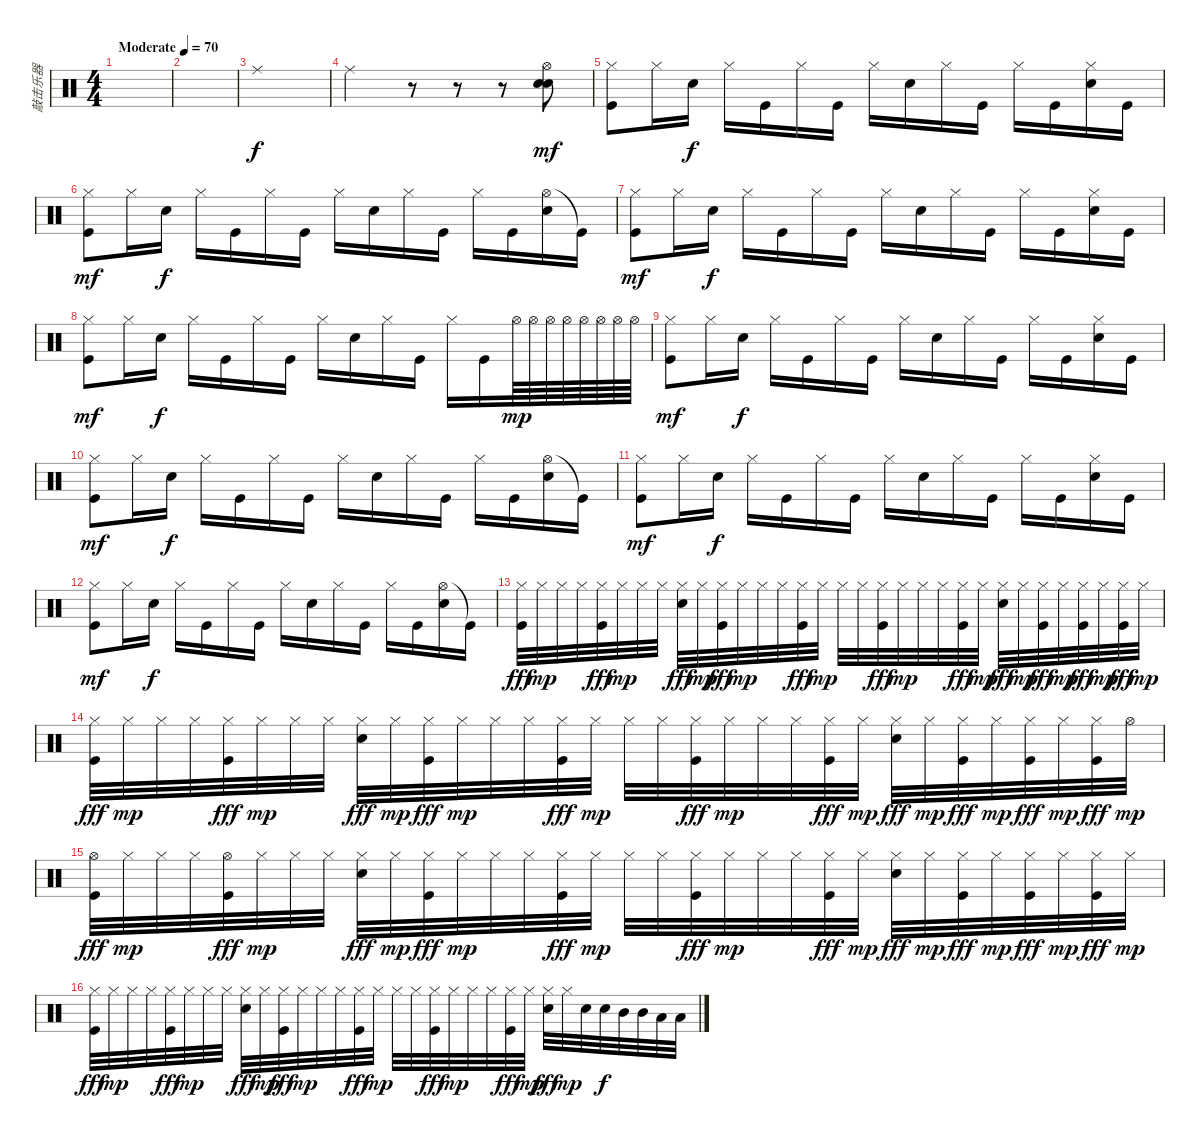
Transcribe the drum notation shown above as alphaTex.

\track ("敲击乐器" "敲击乐器") {instrument percussion}
\staff {score}
\articulation defaults
\ts (4 4)
\tempo (70 "Moderate")
\clef neutral
\ks c
|
|
"Ride (middle)".1 |
"Ride (middle)".2 r.8 r.8 r.8 ("Snare (hit) 2" "Snare (hit) 2" "Hi-Hat (open)").8{dy mf} |
("Hi-Hat (closed)" "Kick (hit)").8 "Hi-Hat (closed)".16 "Snare (hit) 2".16{dy f} "Hi-Hat (closed)".16 "Kick (hit)".16 "Hi-Hat (closed)".16 "Kick (hit)".16 "Hi-Hat (closed)".16 "Snare (hit) 2".16 "Hi-Hat (closed)".16 "Kick (hit)".16 "Hi-Hat (closed)".16 "Kick (hit)".16 ("Hi-Hat (closed)" "Snare (hit) 2").16 "Kick (hit)".16 |
("Hi-Hat (closed)" "Kick (hit)").8{dy mf} "Hi-Hat (closed)".16 "Snare (hit) 2".16{dy f} "Hi-Hat (closed)".16 "Kick (hit)".16 "Hi-Hat (closed)".16 "Kick (hit)".16 "Hi-Hat (closed)".16 "Snare (hit) 2".16 "Hi-Hat (closed)".16 "Kick (hit)".16 "Hi-Hat (closed)".16 "Kick (hit)".16 ("Hi-Hat (open)" "Snare (hit) 2").16 "Kick (hit)"{t}.16 |
("Hi-Hat (closed)" "Kick (hit)").8{dy mf} "Hi-Hat (closed)".16 "Snare (hit) 2".16{dy f} "Hi-Hat (closed)".16 "Kick (hit)".16 "Hi-Hat (closed)".16 "Kick (hit)".16 "Hi-Hat (closed)".16 "Snare (hit) 2".16 "Hi-Hat (closed)".16 "Kick (hit)".16 "Hi-Hat (closed)".16 "Kick (hit)".16 ("Hi-Hat (closed)" "Snare (hit) 2").16 "Kick (hit)".16 |
("Hi-Hat (closed)" "Kick (hit)").8{dy mf} "Hi-Hat (closed)".16 "Snare (hit) 2".16{dy f} "Hi-Hat (closed)".16 "Kick (hit)".16 "Hi-Hat (closed)".16 "Kick (hit)".16 "Hi-Hat (closed)".16 "Snare (hit) 2".16 "Hi-Hat (closed)".16 "Kick (hit)".16 "Hi-Hat (closed)".16 "Kick (hit)".16 "Hi-Hat (open)".64{dy mp} "Hi-Hat (open)".64 "Hi-Hat (open)".64 "Hi-Hat (open)".64 "Hi-Hat (open)".64 "Hi-Hat (open)".64 "Hi-Hat (open)".64 "Hi-Hat (open)".64 |
("Hi-Hat (closed)" "Kick (hit)").8{dy mf} "Hi-Hat (closed)".16 "Snare (hit) 2".16{dy f} "Hi-Hat (closed)".16 "Kick (hit)".16 "Hi-Hat (closed)".16 "Kick (hit)".16 "Hi-Hat (closed)".16 "Snare (hit) 2".16 "Hi-Hat (closed)".16 "Kick (hit)".16 "Hi-Hat (closed)".16 "Kick (hit)".16 ("Hi-Hat (closed)" "Snare (hit) 2").16 "Kick (hit)".16 |
("Hi-Hat (closed)" "Kick (hit)").8{dy mf} "Hi-Hat (closed)".16 "Snare (hit) 2".16{dy f} "Hi-Hat (closed)".16 "Kick (hit)".16 "Hi-Hat (closed)".16 "Kick (hit)".16 "Hi-Hat (closed)".16 "Snare (hit) 2".16 "Hi-Hat (closed)".16 "Kick (hit)".16 "Hi-Hat (closed)".16 "Kick (hit)".16 ("Hi-Hat (open)" "Snare (hit) 2").16 "Kick (hit)"{t}.16 |
("Hi-Hat (closed)" "Kick (hit)").8{dy mf} "Hi-Hat (closed)".16 "Snare (hit) 2".16{dy f} "Hi-Hat (closed)".16 "Kick (hit)".16 "Hi-Hat (closed)".16 "Kick (hit)".16 "Hi-Hat (closed)".16 "Snare (hit) 2".16 "Hi-Hat (closed)".16 "Kick (hit)".16 "Hi-Hat (closed)".16 "Kick (hit)".16 ("Hi-Hat (closed)" "Snare (hit) 2").16 "Kick (hit)".16 |
("Hi-Hat (closed)" "Kick (hit)").8{dy mf} "Hi-Hat (closed)".16 "Snare (hit) 2".16{dy f} "Hi-Hat (closed)".16 "Kick (hit)".16 "Hi-Hat (closed)".16 "Kick (hit)".16 "Hi-Hat (closed)".16 "Snare (hit) 2".16 "Hi-Hat (closed)".16 "Kick (hit)".16 "Hi-Hat (closed)".16 "Kick (hit)".16 ("Hi-Hat (open)" "Snare (hit) 2").16 "Kick (hit)"{t}.16 |
("Hi-Hat (closed)" "Kick (hit)").32{dy fff} "Hi-Hat (closed)".32{dy mp} "Hi-Hat (closed)".32 "Hi-Hat (closed)".32 ("Hi-Hat (closed)" "Kick (hit)").32{dy fff} "Hi-Hat (closed)".32{dy mp} "Hi-Hat (closed)".32 "Hi-Hat (closed)".32 ("Hi-Hat (closed)" "Snare (hit) 2").32{dy fff} "Hi-Hat (closed)".32{dy mp} ("Hi-Hat (closed)" "Kick (hit)").32{dy fff} "Hi-Hat (closed)".32{dy mp} "Hi-Hat (closed)".32 "Hi-Hat (closed)".32 ("Hi-Hat (closed)" "Kick (hit)").32{dy fff} "Hi-Hat (closed)".32{dy mp} "Hi-Hat (closed)".32 "Hi-Hat (closed)".32 ("Hi-Hat (closed)" "Kick (hit)").32{dy fff} "Hi-Hat (closed)".32{dy mp} "Hi-Hat (closed)".32 "Hi-Hat (closed)".32 ("Hi-Hat (closed)" "Kick (hit)").32{dy fff} "Hi-Hat (closed)".32{dy mp} ("Hi-Hat (closed)" "Snare (hit) 2").32{dy fff} "Hi-Hat (closed)".32{dy mp} ("Hi-Hat (closed)" "Kick (hit)").32{dy fff} "Hi-Hat (closed)".32{dy mp} ("Hi-Hat (closed)" "Kick (hit)").32{dy fff} "Hi-Hat (closed)".32{dy mp} ("Hi-Hat (closed)" "Kick (hit)").32{dy fff} "Hi-Hat (closed)".32{dy mp} |
("Hi-Hat (closed)" "Kick (hit)").32{dy fff} "Hi-Hat (closed)".32{dy mp} "Hi-Hat (closed)".32 "Hi-Hat (closed)".32 ("Hi-Hat (closed)" "Kick (hit)").32{dy fff} "Hi-Hat (closed)".32{dy mp} "Hi-Hat (closed)".32 "Hi-Hat (closed)".32 ("Hi-Hat (closed)" "Snare (hit) 2").32{dy fff} "Hi-Hat (closed)".32{dy mp} ("Hi-Hat (closed)" "Kick (hit)").32{dy fff} "Hi-Hat (closed)".32{dy mp} "Hi-Hat (closed)".32 "Hi-Hat (closed)".32 ("Hi-Hat (closed)" "Kick (hit)").32{dy fff} "Hi-Hat (closed)".32{dy mp} "Hi-Hat (closed)".32 "Hi-Hat (closed)".32 ("Hi-Hat (closed)" "Kick (hit)").32{dy fff} "Hi-Hat (closed)".32{dy mp} "Hi-Hat (closed)".32 "Hi-Hat (closed)".32 ("Hi-Hat (closed)" "Kick (hit)").32{dy fff} "Hi-Hat (closed)".32{dy mp} ("Hi-Hat (closed)" "Snare (hit) 2").32{dy fff} "Hi-Hat (closed)".32{dy mp} ("Hi-Hat (closed)" "Kick (hit)").32{dy fff} "Hi-Hat (closed)".32{dy mp} ("Hi-Hat (closed)" "Kick (hit)").32{dy fff} "Hi-Hat (closed)".32{dy mp} ("Hi-Hat (closed)" "Kick (hit)").32{dy fff} "Hi-Hat (open)".32{dy mp} |
("Hi-Hat (open)" "Kick (hit)").32{dy fff} "Hi-Hat (closed)".32{dy mp} "Hi-Hat (closed)".32 "Hi-Hat (closed)".32 ("Hi-Hat (open)" "Kick (hit)").32{dy fff} "Hi-Hat (closed)".32{dy mp} "Hi-Hat (closed)".32 "Hi-Hat (closed)".32 ("Hi-Hat (closed)" "Snare (hit) 2").32{dy fff} "Hi-Hat (closed)".32{dy mp} ("Hi-Hat (closed)" "Kick (hit)").32{dy fff} "Hi-Hat (closed)".32{dy mp} "Hi-Hat (closed)".32 "Hi-Hat (closed)".32 ("Hi-Hat (closed)" "Kick (hit)").32{dy fff} "Hi-Hat (closed)".32{dy mp} "Hi-Hat (closed)".32 "Hi-Hat (closed)".32 ("Hi-Hat (closed)" "Kick (hit)").32{dy fff} "Hi-Hat (closed)".32{dy mp} "Hi-Hat (closed)".32 "Hi-Hat (closed)".32 ("Hi-Hat (closed)" "Kick (hit)").32{dy fff} "Hi-Hat (closed)".32{dy mp} ("Hi-Hat (closed)" "Snare (hit) 2").32{dy fff} "Hi-Hat (closed)".32{dy mp} ("Hi-Hat (closed)" "Kick (hit)").32{dy fff} "Hi-Hat (closed)".32{dy mp} ("Hi-Hat (closed)" "Kick (hit)").32{dy fff} "Hi-Hat (closed)".32{dy mp} ("Hi-Hat (closed)" "Kick (hit)").32{dy fff} "Hi-Hat (closed)".32{dy mp} |
("Hi-Hat (closed)" "Kick (hit)").32{dy fff} "Hi-Hat (closed)".32{dy mp} "Hi-Hat (closed)".32 "Hi-Hat (closed)".32 ("Hi-Hat (closed)" "Kick (hit)").32{dy fff} "Hi-Hat (closed)".32{dy mp} "Hi-Hat (closed)".32 "Hi-Hat (closed)".32 ("Hi-Hat (closed)" "Snare (hit) 2").32{dy fff} "Hi-Hat (closed)".32{dy mp} ("Hi-Hat (closed)" "Kick (hit)").32{dy fff} "Hi-Hat (closed)".32{dy mp} "Hi-Hat (closed)".32 "Hi-Hat (closed)".32 ("Hi-Hat (closed)" "Kick (hit)").32{dy fff} "Hi-Hat (closed)".32{dy mp} "Hi-Hat (closed)".32 "Hi-Hat (closed)".32 ("Hi-Hat (closed)" "Kick (hit)").32{dy fff} "Hi-Hat (closed)".32{dy mp} "Hi-Hat (closed)".32 "Hi-Hat (closed)".32 ("Hi-Hat (closed)" "Kick (hit)").32{dy fff} "Hi-Hat (closed)".32{dy mp} ("Hi-Hat (closed)" "Snare (hit) 2").32{dy fff} "Hi-Hat (closed)".32{dy mp} "Snare (hit) 2".32 "Snare (hit) 2".32{dy f} "Mid Tom (hit)".32 "Mid Tom (hit)".32 "Low Tom (hit)".32 "Low Tom (hit)".32
